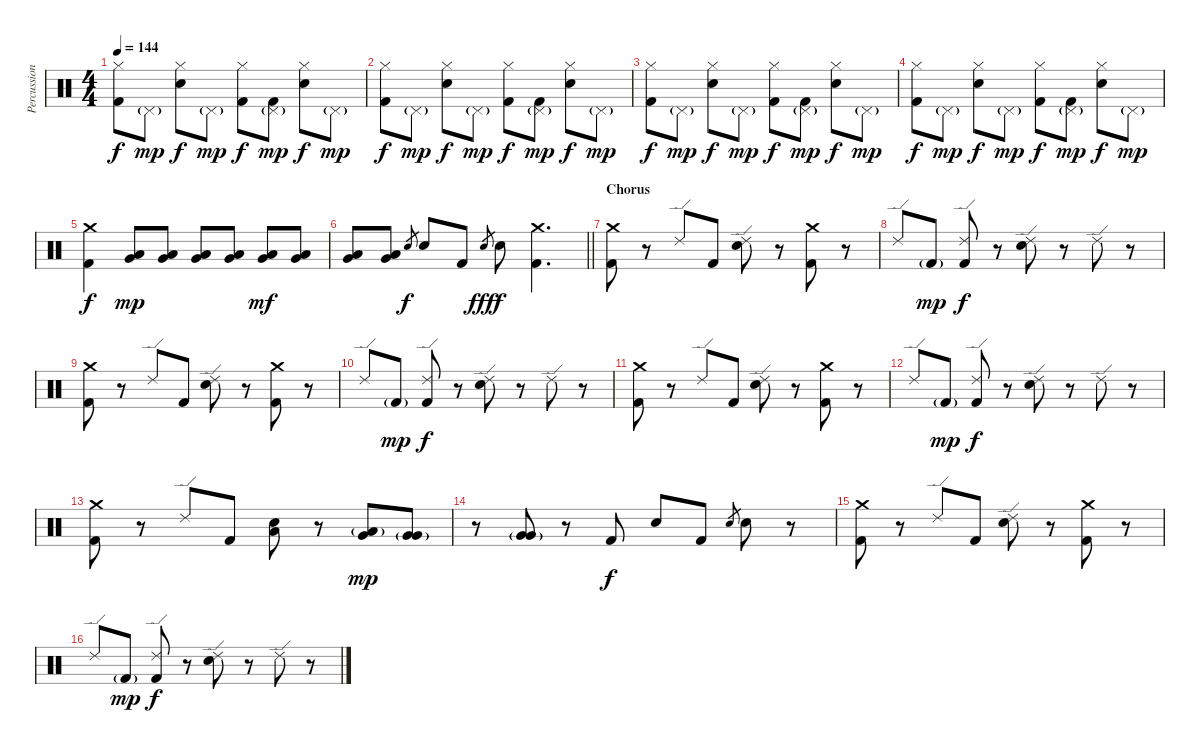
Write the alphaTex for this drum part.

\track ("Percussion" "Percussion") {instrument percussion}
\staff {score}
\articulation defaults
\ts (4 4)
\tempo 144
\clef neutral
\ks c
("Hi-Hat (closed)" "Kick (hit) 2").8{dy f} "Pedal Hi-Hat (hit)"{g}.8{dy mp} ("Hi-Hat (closed)" "Electric Snare (hit)").8{dy f} "Pedal Hi-Hat (hit)"{g}.8{dy mp} ("Hi-Hat (closed)" "Kick (hit) 2").8{dy f} ("Pedal Hi-Hat (hit)"{g} "Kick (hit) 2").8{dy mp} ("Hi-Hat (closed)" "Electric Snare (hit)").8{dy f} "Pedal Hi-Hat (hit)"{g}.8{dy mp} |
("Hi-Hat (closed)" "Kick (hit) 2").8{dy f} "Pedal Hi-Hat (hit)"{g}.8{dy mp} ("Hi-Hat (closed)" "Electric Snare (hit)").8{dy f} "Pedal Hi-Hat (hit)"{g}.8{dy mp} ("Hi-Hat (closed)" "Kick (hit) 2").8{dy f} ("Pedal Hi-Hat (hit)"{g} "Kick (hit) 2").8{dy mp} ("Hi-Hat (closed)" "Electric Snare (hit)").8{dy f} "Pedal Hi-Hat (hit)"{g}.8{dy mp} |
("Hi-Hat (closed)" "Kick (hit) 2").8{dy f} "Pedal Hi-Hat (hit)"{g}.8{dy mp} ("Hi-Hat (closed)" "Electric Snare (hit)").8{dy f} "Pedal Hi-Hat (hit)"{g}.8{dy mp} ("Hi-Hat (closed)" "Kick (hit) 2").8{dy f} ("Pedal Hi-Hat (hit)"{g} "Kick (hit) 2").8{dy mp} ("Hi-Hat (closed)" "Electric Snare (hit)").8{dy f} "Pedal Hi-Hat (hit)"{g}.8{dy mp} |
("Hi-Hat (closed)" "Kick (hit) 2").8{dy f} "Pedal Hi-Hat (hit)"{g}.8{dy mp} ("Hi-Hat (closed)" "Electric Snare (hit)").8{dy f} "Pedal Hi-Hat (hit)"{g}.8{dy mp} ("Hi-Hat (closed)" "Kick (hit) 2").8{dy f} ("Pedal Hi-Hat (hit)"{g} "Kick (hit) 2").8{dy mp} ("Hi-Hat (closed)" "Electric Snare (hit)").8{dy f} "Pedal Hi-Hat (hit)"{g}.8{dy mp} |
("Crash medium (hit)" "Kick (hit) 2").4{dy f} ("Low Tom (hit)" "Very Low Tom (hit)").8{dy mp} ("Low Tom (hit)" "Very Low Tom (hit)").8 ("Low Tom (hit)" "Very Low Tom (hit)").8 ("Low Tom (hit)" "Very Low Tom (hit)").8 ("Low Tom (hit)" "Very Low Tom (hit)").8{dy mf} ("Low Tom (hit)" "Very Low Tom (hit)").8 |
\barLineRight lightlight
("Low Tom (hit)" "Very Low Tom (hit)").8 ("Low Tom (hit)" "Very Low Tom (hit)").8 "Electric Snare (hit)".8{gr dy f} "Electric Snare (hit)".8 "Kick (hit) 2".8 "Electric Snare (hit)".8{gr dy fff} "Electric Snare (hit)".8{dy f} ("Crash medium (hit)" "Kick (hit) 2").4{d} |
\section ("" "Chorus")
("Crash medium (hit)" "Kick (hit) 2").8 r.8 "Ride (edge) 2".8 "Kick (hit) 2".8 ("Ride (edge) 2" "Electric Snare (hit)").8 r.8 ("Crash medium (hit)" "Kick (hit) 2").8 r.8 |
"Ride (edge) 2".8 "Kick (hit) 2"{g}.8{dy mp} ("Ride (edge) 2" "Kick (hit) 2").8{dy f} r.8 ("Ride (edge) 2" "Electric Snare (hit)").8 r.8 "Ride (edge) 2".8 r.8 |
("Crash medium (hit)" "Kick (hit) 2").8 r.8 "Ride (edge) 2".8 "Kick (hit) 2".8 ("Ride (edge) 2" "Electric Snare (hit)").8 r.8 ("Crash medium (hit)" "Kick (hit) 2").8 r.8 |
"Ride (edge) 2".8 "Kick (hit) 2"{g}.8{dy mp} ("Ride (edge) 2" "Kick (hit) 2").8{dy f} r.8 ("Ride (edge) 2" "Electric Snare (hit)").8 r.8 "Ride (edge) 2".8 r.8 |
("Crash medium (hit)" "Kick (hit) 2").8 r.8 "Ride (edge) 2".8 "Kick (hit) 2".8 ("Ride (edge) 2" "Electric Snare (hit)").8 r.8 ("Crash medium (hit)" "Kick (hit) 2").8 r.8 |
"Ride (edge) 2".8 "Kick (hit) 2"{g}.8{dy mp} ("Ride (edge) 2" "Kick (hit) 2").8{dy f} r.8 ("Ride (edge) 2" "Electric Snare (hit)").8 r.8 "Ride (edge) 2".8 r.8 |
("Crash medium (hit)" "Kick (hit) 2").8 r.8 "Ride (edge) 2".8 "Kick (hit) 2".8 ("Low Floor Tom (hit)" "Electric Snare (hit)").8 r.8 ("Low Tom (hit)"{g} "Very Low Tom (hit)").8{dy mp} ("Very Low Tom (hit)"{g} "Very Low Tom (hit)").8 |
r.8 ("Very Low Tom (hit)"{g} "Very Low Tom (hit)").8 r.8 "Kick (hit) 2".8{dy f} "Electric Snare (hit)".8 "Kick (hit) 2".8 "Electric Snare (hit)".8{gr} "Electric Snare (hit)".8 r.8 |
("Crash medium (hit)" "Kick (hit) 2").8 r.8 "Ride (edge) 2".8 "Kick (hit) 2".8 ("Ride (edge) 2" "Electric Snare (hit)").8 r.8 ("Crash medium (hit)" "Kick (hit) 2").8 r.8 |
"Ride (edge) 2".8 "Kick (hit) 2"{g}.8{dy mp} ("Ride (edge) 2" "Kick (hit) 2").8{dy f} r.8 ("Ride (edge) 2" "Electric Snare (hit)").8 r.8 "Ride (edge) 2".8 r.8
